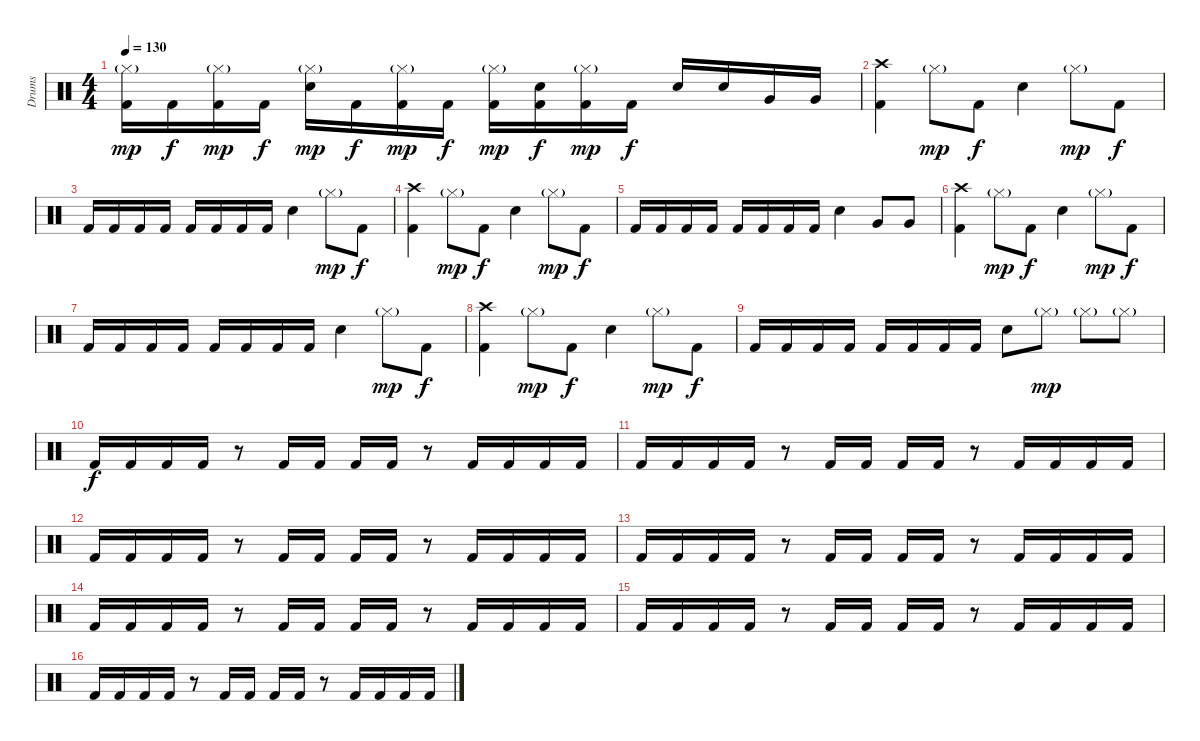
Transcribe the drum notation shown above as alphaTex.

\track ("Drums" "Drums") {instrument percussion}
\staff {score}
\articulation defaults
\ts (4 4)
\tempo 130
\clef neutral
\ks c
("Hi-Hat (closed)"{g} "Kick (hit) 2").16{dy mp} "Kick (hit) 2".16{dy f} ("Hi-Hat (closed)"{g} "Kick (hit) 2").16{dy mp} "Kick (hit) 2".16{dy f} ("Snare (hit) 2" "Hi-Hat (closed)"{g}).16{dy mp} "Kick (hit) 2".16{dy f} ("Hi-Hat (closed)"{g} "Kick (hit) 2").16{dy mp} "Kick (hit) 2".16{dy f} ("Hi-Hat (closed)"{g} "Kick (hit) 2").16{dy mp} ("Snare (hit) 2" "Kick (hit) 2").16{dy f} ("Hi-Hat (closed)"{g} "Kick (hit) 2").16{dy mp} "Kick (hit) 2".16{dy f} "Snare (hit) 2".16 "Snare (hit) 2".16 "Very Low Tom (hit)".16 "Very Low Tom (hit)".16 |
("Crash high (hit)" "Kick (hit) 2").4 "Hi-Hat (closed)"{g}.8{dy mp} "Kick (hit) 2".8{dy f} "Snare (hit) 2".4 "Hi-Hat (closed)"{g}.8{dy mp} "Kick (hit) 2".8{dy f} |
"Kick (hit) 2".16 "Kick (hit) 2".16 "Kick (hit) 2".16 "Kick (hit) 2".16 "Kick (hit) 2".16 "Kick (hit) 2".16 "Kick (hit) 2".16 "Kick (hit) 2".16 "Snare (hit) 2".4 "Hi-Hat (closed)"{g}.8{dy mp} "Kick (hit) 2".8{dy f} |
("Crash high (hit)" "Kick (hit) 2").4 "Hi-Hat (closed)"{g}.8{dy mp} "Kick (hit) 2".8{dy f} "Snare (hit) 2".4 "Hi-Hat (closed)"{g}.8{dy mp} "Kick (hit) 2".8{dy f} |
"Kick (hit) 2".16 "Kick (hit) 2".16 "Kick (hit) 2".16 "Kick (hit) 2".16 "Kick (hit) 2".16 "Kick (hit) 2".16 "Kick (hit) 2".16 "Kick (hit) 2".16 "Snare (hit) 2".4 "Very Low Tom (hit)".8 "Very Low Tom (hit)".8 |
("Crash high (hit)" "Kick (hit) 2").4 "Hi-Hat (closed)"{g}.8{dy mp} "Kick (hit) 2".8{dy f} "Snare (hit) 2".4 "Hi-Hat (closed)"{g}.8{dy mp} "Kick (hit) 2".8{dy f} |
"Kick (hit) 2".16 "Kick (hit) 2".16 "Kick (hit) 2".16 "Kick (hit) 2".16 "Kick (hit) 2".16 "Kick (hit) 2".16 "Kick (hit) 2".16 "Kick (hit) 2".16 "Snare (hit) 2".4 "Hi-Hat (closed)"{g}.8{dy mp} "Kick (hit) 2".8{dy f} |
("Crash high (hit)" "Kick (hit) 2").4 "Hi-Hat (closed)"{g}.8{dy mp} "Kick (hit) 2".8{dy f} "Snare (hit) 2".4 "Hi-Hat (closed)"{g}.8{dy mp} "Kick (hit) 2".8{dy f} |
"Kick (hit) 2".16 "Kick (hit) 2".16 "Kick (hit) 2".16 "Kick (hit) 2".16 "Kick (hit) 2".16 "Kick (hit) 2".16 "Kick (hit) 2".16 "Kick (hit) 2".16 "Snare (hit) 2".8 "Hi-Hat (closed)"{g}.8{dy mp} "Hi-Hat (closed)"{g}.8 "Hi-Hat (closed)"{g}.8 |
"Kick (hit) 2".16{dy f} "Kick (hit) 2".16 "Kick (hit) 2".16 "Kick (hit) 2".16 r.8 "Kick (hit) 2".16 "Kick (hit) 2".16 "Kick (hit) 2".16 "Kick (hit) 2".16 r.8 "Kick (hit) 2".16 "Kick (hit) 2".16 "Kick (hit) 2".16 "Kick (hit) 2".16 |
"Kick (hit) 2".16 "Kick (hit) 2".16 "Kick (hit) 2".16 "Kick (hit) 2".16 r.8 "Kick (hit) 2".16 "Kick (hit) 2".16 "Kick (hit) 2".16 "Kick (hit) 2".16 r.8 "Kick (hit) 2".16 "Kick (hit) 2".16 "Kick (hit) 2".16 "Kick (hit) 2".16 |
"Kick (hit) 2".16 "Kick (hit) 2".16 "Kick (hit) 2".16 "Kick (hit) 2".16 r.8 "Kick (hit) 2".16 "Kick (hit) 2".16 "Kick (hit) 2".16 "Kick (hit) 2".16 r.8 "Kick (hit) 2".16 "Kick (hit) 2".16 "Kick (hit) 2".16 "Kick (hit) 2".16 |
"Kick (hit) 2".16 "Kick (hit) 2".16 "Kick (hit) 2".16 "Kick (hit) 2".16 r.8 "Kick (hit) 2".16 "Kick (hit) 2".16 "Kick (hit) 2".16 "Kick (hit) 2".16 r.8 "Kick (hit) 2".16 "Kick (hit) 2".16 "Kick (hit) 2".16 "Kick (hit) 2".16 |
"Kick (hit) 2".16 "Kick (hit) 2".16 "Kick (hit) 2".16 "Kick (hit) 2".16 r.8 "Kick (hit) 2".16 "Kick (hit) 2".16 "Kick (hit) 2".16 "Kick (hit) 2".16 r.8 "Kick (hit) 2".16 "Kick (hit) 2".16 "Kick (hit) 2".16 "Kick (hit) 2".16 |
"Kick (hit) 2".16 "Kick (hit) 2".16 "Kick (hit) 2".16 "Kick (hit) 2".16 r.8 "Kick (hit) 2".16 "Kick (hit) 2".16 "Kick (hit) 2".16 "Kick (hit) 2".16 r.8 "Kick (hit) 2".16 "Kick (hit) 2".16 "Kick (hit) 2".16 "Kick (hit) 2".16 |
"Kick (hit) 2".16 "Kick (hit) 2".16 "Kick (hit) 2".16 "Kick (hit) 2".16 r.8 "Kick (hit) 2".16 "Kick (hit) 2".16 "Kick (hit) 2".16 "Kick (hit) 2".16 r.8 "Kick (hit) 2".16 "Kick (hit) 2".16 "Kick (hit) 2".16 "Kick (hit) 2".16
